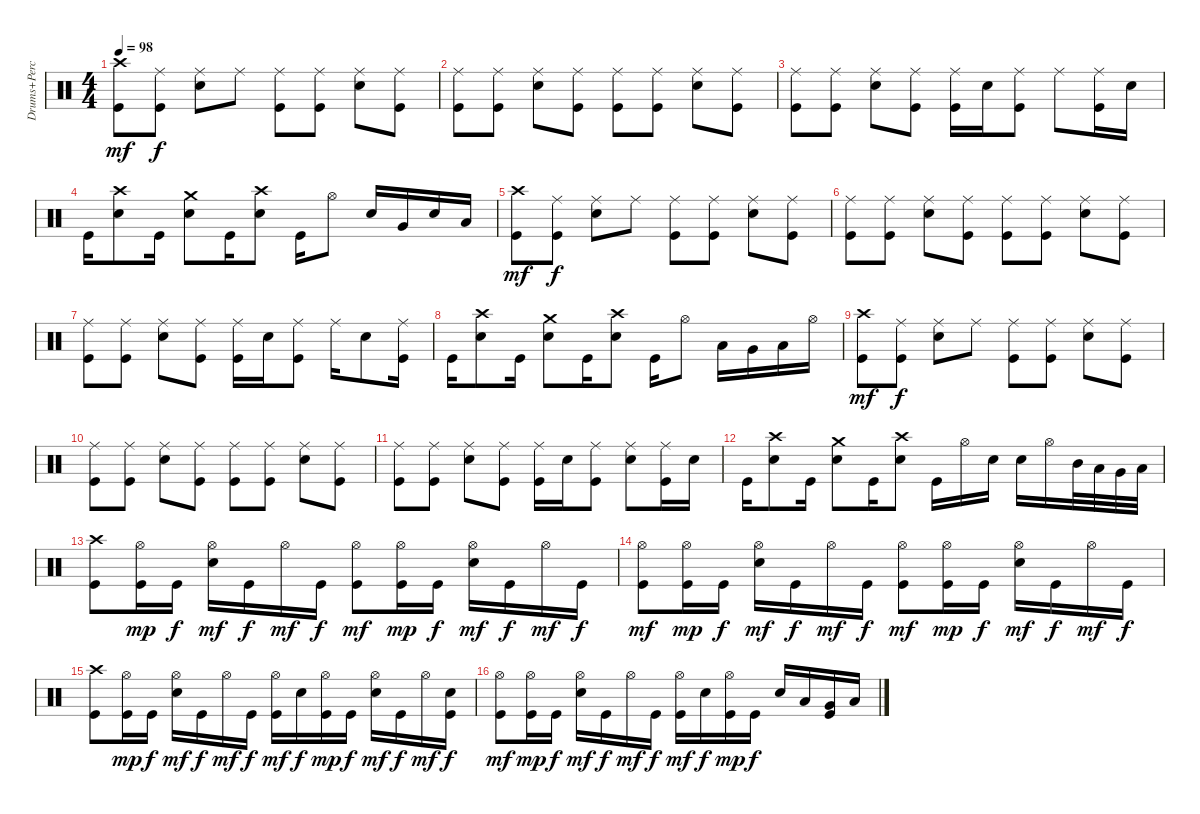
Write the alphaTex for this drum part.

\track ("Drums+Percussion" "Drums+Perc") {instrument percussion}
\staff {score}
\articulation defaults
\ts (4 4)
\tempo 98
\clef neutral
\ks c
("Kick (hit)" "Crash high (hit)").8{dy mf} ("Kick (hit)" "Ride (middle)").8{dy f} ("Snare (hit) 2" "Ride (middle)").8 "Ride (middle)".8 ("Kick (hit)" "Ride (middle)").8 ("Kick (hit)" "Ride (middle)").8 ("Snare (hit) 2" "Ride (middle)").8 ("Kick (hit)" "Ride (middle)").8 |
("Kick (hit)" "Ride (middle)").8 ("Kick (hit)" "Ride (middle)").8 ("Snare (hit) 2" "Ride (middle)").8 ("Kick (hit)" "Ride (middle)").8 ("Kick (hit)" "Ride (middle)").8 ("Kick (hit)" "Ride (middle)").8 ("Snare (hit) 2" "Ride (middle)").8 ("Kick (hit)" "Ride (middle)").8 |
("Kick (hit)" "Ride (middle)").8 ("Kick (hit)" "Ride (middle)").8 ("Snare (hit) 2" "Ride (middle)").8 ("Kick (hit)" "Ride (middle)").8 ("Kick (hit)" "Ride (middle)").16 "Snare (hit) 2".16 ("Kick (hit)" "Ride (middle)").8 "Ride (middle)".8 ("Kick (hit)" "Ride (middle)").16 "Snare (hit) 2".16 |
"Kick (hit)".16 ("Snare (hit) 2" "Crash high (hit)").8 "Kick (hit)".16 ("Snare (hit) 2" "Crash medium (hit)").8 "Kick (hit)".16 ("Snare (hit) 2" "Crash high (hit)").8 "Kick (hit)".16 "Hi-Hat (open)".8 "Snare (hit) 2".16 "Very Low Tom (hit)".16 "Snare (hit) 2".16 "Low Floor Tom (hit)".16 |
("Kick (hit)" "Crash high (hit)").8{dy mf} ("Kick (hit)" "Ride (middle)").8{dy f} ("Snare (hit) 2" "Ride (middle)").8 "Ride (middle)".8 ("Kick (hit)" "Ride (middle)").8 ("Kick (hit)" "Ride (middle)").8 ("Snare (hit) 2" "Ride (middle)").8 ("Kick (hit)" "Ride (middle)").8 |
("Kick (hit)" "Ride (middle)").8 ("Kick (hit)" "Ride (middle)").8 ("Snare (hit) 2" "Ride (middle)").8 ("Kick (hit)" "Ride (middle)").8 ("Kick (hit)" "Ride (middle)").8 ("Kick (hit)" "Ride (middle)").8 ("Snare (hit) 2" "Ride (middle)").8 ("Kick (hit)" "Ride (middle)").8 |
("Kick (hit)" "Ride (middle)").8 ("Kick (hit)" "Ride (middle)").8 ("Snare (hit) 2" "Ride (middle)").8 ("Kick (hit)" "Ride (middle)").8 ("Kick (hit)" "Ride (middle)").16 "Snare (hit) 2".16 ("Kick (hit)" "Ride (middle)").8 "Ride (middle)".16 "Snare (hit) 2".8 ("Kick (hit)" "Ride (middle)").16 |
"Kick (hit)".16 ("Snare (hit) 2" "Crash high (hit)").8 "Kick (hit)".16 ("Snare (hit) 2" "Crash medium (hit)").8 "Kick (hit)".16 ("Snare (hit) 2" "Crash high (hit)").8 "Kick (hit)".16 "Hi-Hat (open)".8 "Low Tom (hit)".16 "Very Low Tom (hit)".16 "Low Floor Tom (hit)".16 "Hi-Hat (open)".16 |
("Kick (hit)" "Crash high (hit)").8{dy mf} ("Kick (hit)" "Ride (middle)").8{dy f} ("Snare (hit) 2" "Ride (middle)").8 "Ride (middle)".8 ("Kick (hit)" "Ride (middle)").8 ("Kick (hit)" "Ride (middle)").8 ("Snare (hit) 2" "Ride (middle)").8 ("Kick (hit)" "Ride (middle)").8 |
("Kick (hit)" "Ride (middle)").8 ("Kick (hit)" "Ride (middle)").8 ("Snare (hit) 2" "Ride (middle)").8 ("Kick (hit)" "Ride (middle)").8 ("Kick (hit)" "Ride (middle)").8 ("Kick (hit)" "Ride (middle)").8 ("Snare (hit) 2" "Ride (middle)").8 ("Kick (hit)" "Ride (middle)").8 |
("Kick (hit)" "Ride (middle)").8 ("Kick (hit)" "Ride (middle)").8 ("Snare (hit) 2" "Ride (middle)").8 ("Kick (hit)" "Ride (middle)").8 ("Kick (hit)" "Ride (middle)").16 "Snare (hit) 2".16 ("Kick (hit)" "Ride (middle)").8 ("Snare (hit) 2" "Ride (middle)").8 ("Kick (hit)" "Ride (middle)").16 "Snare (hit) 2".16 |
"Kick (hit)".16 ("Snare (hit) 2" "Crash high (hit)").8 "Kick (hit)".16 ("Snare (hit) 2" "Crash medium (hit)").8 "Kick (hit)".16 ("Snare (hit) 2" "Crash high (hit)").8 "Kick (hit)".16 "Hi-Hat (open)".16 "Snare (hit) 2".16 "Snare (hit) 2".16 "Hi-Hat (open)".16 "Mid Tom (hit)".32 "Low Tom (hit)".32 "Very Low Tom (hit)".32 "Low Floor Tom (hit)".32 |
("Kick (hit)" "Crash high (hit)").8 ("Kick (hit)" "Hi-Hat (open)").16{dy mp} "Kick (hit)".16{dy f} ("Snare (hit) 2" "Hi-Hat (open)").16{dy mf} "Kick (hit)".16{dy f} "Hi-Hat (open)".16{dy mf} "Kick (hit)".16{dy f} ("Kick (hit)" "Hi-Hat (open)").8{dy mf} ("Kick (hit)" "Hi-Hat (open)").16{dy mp} "Kick (hit)".16{dy f} ("Snare (hit) 2" "Hi-Hat (open)").16{dy mf} "Kick (hit)".16{dy f} "Hi-Hat (open)".16{dy mf} "Kick (hit)".16{dy f} |
("Kick (hit)" "Hi-Hat (open)").8{dy mf} ("Kick (hit)" "Hi-Hat (open)").16{dy mp} "Kick (hit)".16{dy f} ("Snare (hit) 2" "Hi-Hat (open)").16{dy mf} "Kick (hit)".16{dy f} "Hi-Hat (open)".16{dy mf} "Kick (hit)".16{dy f} ("Kick (hit)" "Hi-Hat (open)").8{dy mf} ("Kick (hit)" "Hi-Hat (open)").16{dy mp} "Kick (hit)".16{dy f} ("Snare (hit) 2" "Hi-Hat (open)").16{dy mf} "Kick (hit)".16{dy f} "Hi-Hat (open)".16{dy mf} "Kick (hit)".16{dy f} |
("Kick (hit)" "Crash high (hit)").8 ("Kick (hit)" "Hi-Hat (open)").16{dy mp} "Kick (hit)".16{dy f} ("Snare (hit) 2" "Hi-Hat (open)").16{dy mf} "Kick (hit)".16{dy f} "Hi-Hat (open)".16{dy mf} "Kick (hit)".16{dy f} ("Kick (hit)" "Hi-Hat (open)").16{dy mf} "Snare (hit) 2".16{dy f} ("Kick (hit)" "Hi-Hat (open)").16{dy mp} "Kick (hit)".16{dy f} ("Snare (hit) 2" "Hi-Hat (open)").16{dy mf} "Kick (hit)".16{dy f} "Hi-Hat (open)".16{dy mf} ("Kick (hit)" "Snare (hit) 2").16{dy f} |
("Kick (hit)" "Hi-Hat (open)").8{dy mf} ("Kick (hit)" "Hi-Hat (open)").16{dy mp} "Kick (hit)".16{dy f} ("Snare (hit) 2" "Hi-Hat (open)").16{dy mf} "Kick (hit)".16{dy f} "Hi-Hat (open)".16{dy mf} "Kick (hit)".16{dy f} ("Kick (hit)" "Hi-Hat (open)").16{dy mf} "Snare (hit) 2".16{dy f} ("Kick (hit)" "Hi-Hat (open)").16{dy mp} "Kick (hit)".16{dy f} "Snare (hit) 2".16 "Low Tom (hit)".16 ("Kick (hit)" "Very Low Tom (hit)").16 "Low Floor Tom (hit)".16
